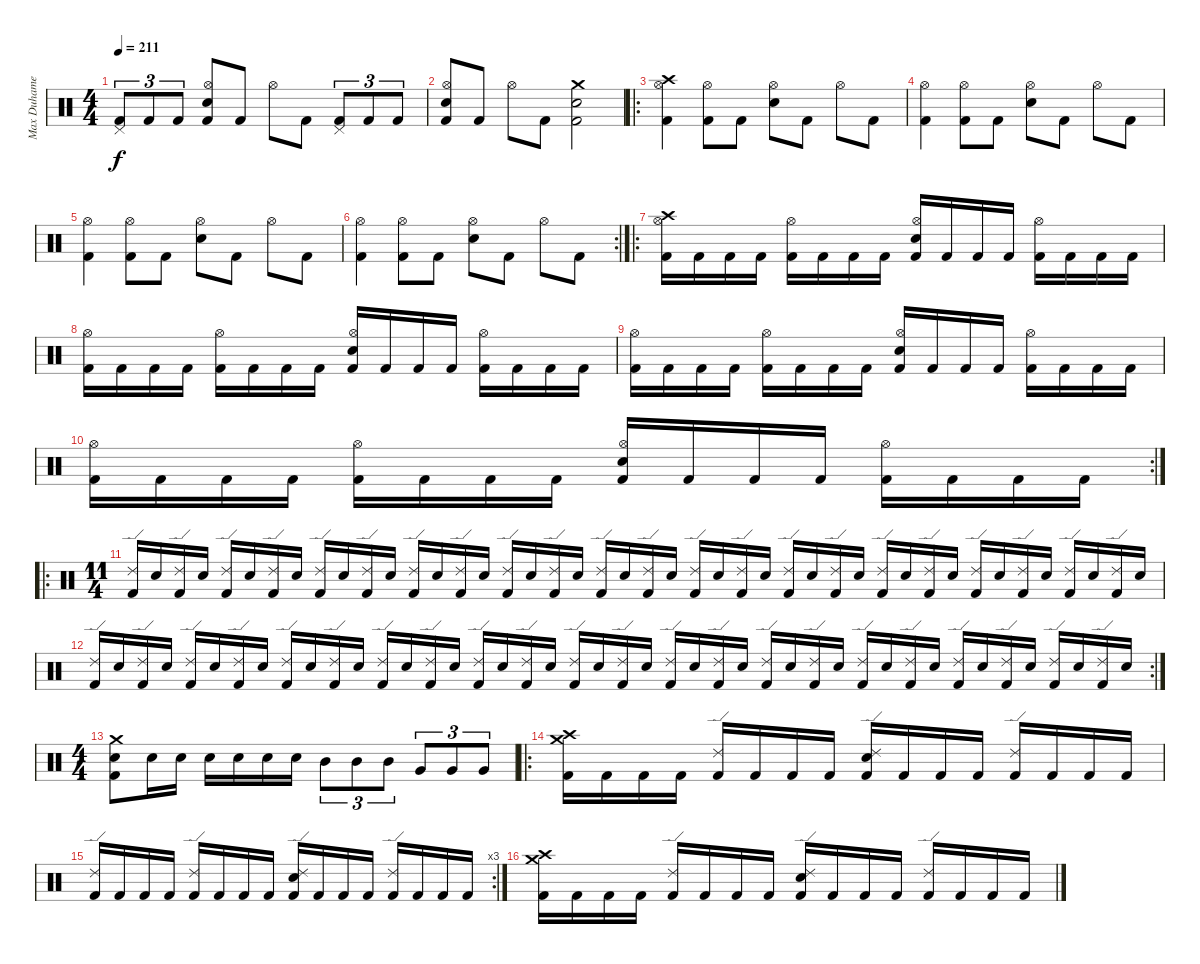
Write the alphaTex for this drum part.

\track ("Max Duhamel" "Max Duhame") {instrument percussion}
\staff {score}
\articulation defaults
\ts (4 4)
\tempo 211
\clef neutral
\ks c
("Pedal Hi-Hat (hit)" "Kick (hit) 2").8{tu (3 2) dy f} "Kick (hit) 2".8{tu (3 2)} "Kick (hit) 2".8{tu (3 2)} ("Hi-Hat (open)" "Electric Snare (hit)" "Kick (hit) 2").8 "Kick (hit) 2".8 "Hi-Hat (open)".8 "Kick (hit) 2".8 ("Pedal Hi-Hat (hit)" "Kick (hit) 2").8{tu (3 2)} "Kick (hit) 2".8{tu (3 2)} "Kick (hit) 2".8{tu (3 2)} |
("Hi-Hat (open)" "Electric Snare (hit)" "Kick (hit) 2").8 "Kick (hit) 2".8 "Hi-Hat (open)".8 "Kick (hit) 2".8 ("Crash medium (hit)" "Electric Snare (hit)" "Kick (hit) 2").2 |
\ro
("Crash high (hit)" "Hi-Hat (open)" "Kick (hit) 2").4 ("Hi-Hat (open)" "Kick (hit) 2").8 "Kick (hit) 2".8 ("Hi-Hat (open)" "Electric Snare (hit)").8 "Kick (hit) 2".8 "Hi-Hat (open)".8 "Kick (hit) 2".8 |
("Hi-Hat (open)" "Kick (hit) 2").4 ("Hi-Hat (open)" "Kick (hit) 2").8 "Kick (hit) 2".8 ("Hi-Hat (open)" "Electric Snare (hit)").8 "Kick (hit) 2".8 "Hi-Hat (open)".8 "Kick (hit) 2".8 |
("Hi-Hat (open)" "Kick (hit) 2").4 ("Hi-Hat (open)" "Kick (hit) 2").8 "Kick (hit) 2".8 ("Hi-Hat (open)" "Electric Snare (hit)").8 "Kick (hit) 2".8 "Hi-Hat (open)".8 "Kick (hit) 2".8 |
\rc 2
("Hi-Hat (open)" "Kick (hit) 2").4 ("Hi-Hat (open)" "Kick (hit) 2").8 "Kick (hit) 2".8 ("Hi-Hat (open)" "Electric Snare (hit)").8 "Kick (hit) 2".8 "Hi-Hat (open)".8 "Kick (hit) 2".8 |
\ro
("Crash high (hit)" "Hi-Hat (open)" "Kick (hit) 2").16 "Kick (hit) 2".16 "Kick (hit) 2".16 "Kick (hit) 2".16 ("Hi-Hat (open)" "Kick (hit) 2").16 "Kick (hit) 2".16 "Kick (hit) 2".16 "Kick (hit) 2".16 ("Hi-Hat (open)" "Electric Snare (hit)" "Kick (hit) 2").16 "Kick (hit) 2".16 "Kick (hit) 2".16 "Kick (hit) 2".16 ("Hi-Hat (open)" "Kick (hit) 2").16 "Kick (hit) 2".16 "Kick (hit) 2".16 "Kick (hit) 2".16 |
("Hi-Hat (open)" "Kick (hit) 2").16 "Kick (hit) 2".16 "Kick (hit) 2".16 "Kick (hit) 2".16 ("Hi-Hat (open)" "Kick (hit) 2").16 "Kick (hit) 2".16 "Kick (hit) 2".16 "Kick (hit) 2".16 ("Hi-Hat (open)" "Electric Snare (hit)" "Kick (hit) 2").16 "Kick (hit) 2".16 "Kick (hit) 2".16 "Kick (hit) 2".16 ("Hi-Hat (open)" "Kick (hit) 2").16 "Kick (hit) 2".16 "Kick (hit) 2".16 "Kick (hit) 2".16 |
("Hi-Hat (open)" "Kick (hit) 2").16 "Kick (hit) 2".16 "Kick (hit) 2".16 "Kick (hit) 2".16 ("Hi-Hat (open)" "Kick (hit) 2").16 "Kick (hit) 2".16 "Kick (hit) 2".16 "Kick (hit) 2".16 ("Hi-Hat (open)" "Electric Snare (hit)" "Kick (hit) 2").16 "Kick (hit) 2".16 "Kick (hit) 2".16 "Kick (hit) 2".16 ("Hi-Hat (open)" "Kick (hit) 2").16 "Kick (hit) 2".16 "Kick (hit) 2".16 "Kick (hit) 2".16 |
\rc 2
("Hi-Hat (open)" "Kick (hit) 2").16 "Kick (hit) 2".16 "Kick (hit) 2".16 "Kick (hit) 2".16 ("Hi-Hat (open)" "Kick (hit) 2").16 "Kick (hit) 2".16 "Kick (hit) 2".16 "Kick (hit) 2".16 ("Hi-Hat (open)" "Electric Snare (hit)" "Kick (hit) 2").16 "Kick (hit) 2".16 "Kick (hit) 2".16 "Kick (hit) 2".16 ("Hi-Hat (open)" "Kick (hit) 2").16 "Kick (hit) 2".16 "Kick (hit) 2".16 "Kick (hit) 2".16 |
\ro
\ts (11 4)
("Ride (edge) 2" "Kick (hit) 2").16 "Electric Snare (hit)".16 ("Ride (edge) 2" "Kick (hit) 2").16 "Electric Snare (hit)".16 ("Ride (edge) 2" "Kick (hit) 2").16 "Electric Snare (hit)".16 ("Ride (edge) 2" "Kick (hit) 2").16 "Electric Snare (hit)".16 ("Ride (edge) 2" "Kick (hit) 2").16 "Electric Snare (hit)".16 ("Ride (edge) 2" "Kick (hit) 2").16 "Electric Snare (hit)".16 ("Ride (edge) 2" "Kick (hit) 2").16 "Electric Snare (hit)".16 ("Ride (edge) 2" "Kick (hit) 2").16 "Electric Snare (hit)".16 ("Ride (edge) 2" "Kick (hit) 2").16 "Electric Snare (hit)".16 ("Ride (edge) 2" "Kick (hit) 2").16 "Electric Snare (hit)".16 ("Ride (edge) 2" "Kick (hit) 2").16 "Electric Snare (hit)".16 ("Ride (edge) 2" "Kick (hit) 2").16 "Electric Snare (hit)".16 ("Ride (edge) 2" "Kick (hit) 2").16 "Electric Snare (hit)".16 ("Ride (edge) 2" "Kick (hit) 2").16 "Electric Snare (hit)".16 ("Ride (edge) 2" "Kick (hit) 2").16 "Electric Snare (hit)".16 ("Ride (edge) 2" "Kick (hit) 2").16 "Electric Snare (hit)".16 ("Ride (edge) 2" "Kick (hit) 2").16 "Electric Snare (hit)".16 ("Ride (edge) 2" "Kick (hit) 2").16 "Electric Snare (hit)".16 ("Ride (edge) 2" "Kick (hit) 2").16 "Electric Snare (hit)".16 ("Ride (edge) 2" "Kick (hit) 2").16 "Electric Snare (hit)".16 ("Ride (edge) 2" "Kick (hit) 2").16 "Electric Snare (hit)".16 ("Ride (edge) 2" "Kick (hit) 2").16 "Electric Snare (hit)".16 |
\rc 2
("Ride (edge) 2" "Kick (hit) 2").16 "Electric Snare (hit)".16 ("Ride (edge) 2" "Kick (hit) 2").16 "Electric Snare (hit)".16 ("Ride (edge) 2" "Kick (hit) 2").16 "Electric Snare (hit)".16 ("Ride (edge) 2" "Kick (hit) 2").16 "Electric Snare (hit)".16 ("Ride (edge) 2" "Kick (hit) 2").16 "Electric Snare (hit)".16 ("Ride (edge) 2" "Kick (hit) 2").16 "Electric Snare (hit)".16 ("Ride (edge) 2" "Kick (hit) 2").16 "Electric Snare (hit)".16 ("Ride (edge) 2" "Kick (hit) 2").16 "Electric Snare (hit)".16 ("Ride (edge) 2" "Kick (hit) 2").16 "Electric Snare (hit)".16 ("Ride (edge) 2" "Kick (hit) 2").16 "Electric Snare (hit)".16 ("Ride (edge) 2" "Kick (hit) 2").16 "Electric Snare (hit)".16 ("Ride (edge) 2" "Kick (hit) 2").16 "Electric Snare (hit)".16 ("Ride (edge) 2" "Kick (hit) 2").16 "Electric Snare (hit)".16 ("Ride (edge) 2" "Kick (hit) 2").16 "Electric Snare (hit)".16 ("Ride (edge) 2" "Kick (hit) 2").16 "Electric Snare (hit)".16 ("Ride (edge) 2" "Kick (hit) 2").16 "Electric Snare (hit)".16 ("Ride (edge) 2" "Kick (hit) 2").16 "Electric Snare (hit)".16 ("Ride (edge) 2" "Kick (hit) 2").16 "Electric Snare (hit)".16 ("Ride (edge) 2" "Kick (hit) 2").16 "Electric Snare (hit)".16 ("Ride (edge) 2" "Kick (hit) 2").16 "Electric Snare (hit)".16 ("Ride (edge) 2" "Kick (hit) 2").16 "Electric Snare (hit)".16 ("Ride (edge) 2" "Kick (hit) 2").16 "Electric Snare (hit)".16 |
\ts (4 4)
("Crash medium (hit)" "Electric Snare (hit)" "Kick (hit) 2").8 "Electric Snare (hit)".16 "Electric Snare (hit)".16 "Electric Snare (hit)".16 "Electric Snare (hit)".16 "Electric Snare (hit)".16 "Electric Snare (hit)".16 "Mid Tom (hit)".8{tu (3 2)} "Mid Tom (hit)".8{tu (3 2)} "Mid Tom (hit)".8{tu (3 2)} "Very Low Tom (hit)".8{tu (3 2)} "Very Low Tom (hit)".8{tu (3 2)} "Very Low Tom (hit)".8{tu (3 2)} |
\ro
("Crash high (hit)" "Crash medium (hit)" "Kick (hit) 2").16 "Kick (hit) 2".16 "Kick (hit) 2".16 "Kick (hit) 2".16 ("Ride (edge) 2" "Kick (hit) 2").16 "Kick (hit) 2".16 "Kick (hit) 2".16 "Kick (hit) 2".16 ("Ride (edge) 2" "Electric Snare (hit)" "Kick (hit) 2").16 "Kick (hit) 2".16 "Kick (hit) 2".16 "Kick (hit) 2".16 ("Ride (edge) 2" "Kick (hit) 2").16 "Kick (hit) 2".16 "Kick (hit) 2".16 "Kick (hit) 2".16 |
\rc 3
("Ride (edge) 2" "Kick (hit) 2").16 "Kick (hit) 2".16 "Kick (hit) 2".16 "Kick (hit) 2".16 ("Ride (edge) 2" "Kick (hit) 2").16 "Kick (hit) 2".16 "Kick (hit) 2".16 "Kick (hit) 2".16 ("Ride (edge) 2" "Electric Snare (hit)" "Kick (hit) 2").16 "Kick (hit) 2".16 "Kick (hit) 2".16 "Kick (hit) 2".16 ("Ride (edge) 2" "Kick (hit) 2").16 "Kick (hit) 2".16 "Kick (hit) 2".16 "Kick (hit) 2".16 |
("Crash high (hit)" "Crash medium (hit)" "Kick (hit) 2").16 "Kick (hit) 2".16 "Kick (hit) 2".16 "Kick (hit) 2".16 ("Ride (edge) 2" "Kick (hit) 2").16 "Kick (hit) 2".16 "Kick (hit) 2".16 "Kick (hit) 2".16 ("Ride (edge) 2" "Electric Snare (hit)" "Kick (hit) 2").16 "Kick (hit) 2".16 "Kick (hit) 2".16 "Kick (hit) 2".16 ("Ride (edge) 2" "Kick (hit) 2").16 "Kick (hit) 2".16 "Kick (hit) 2".16 "Kick (hit) 2".16
